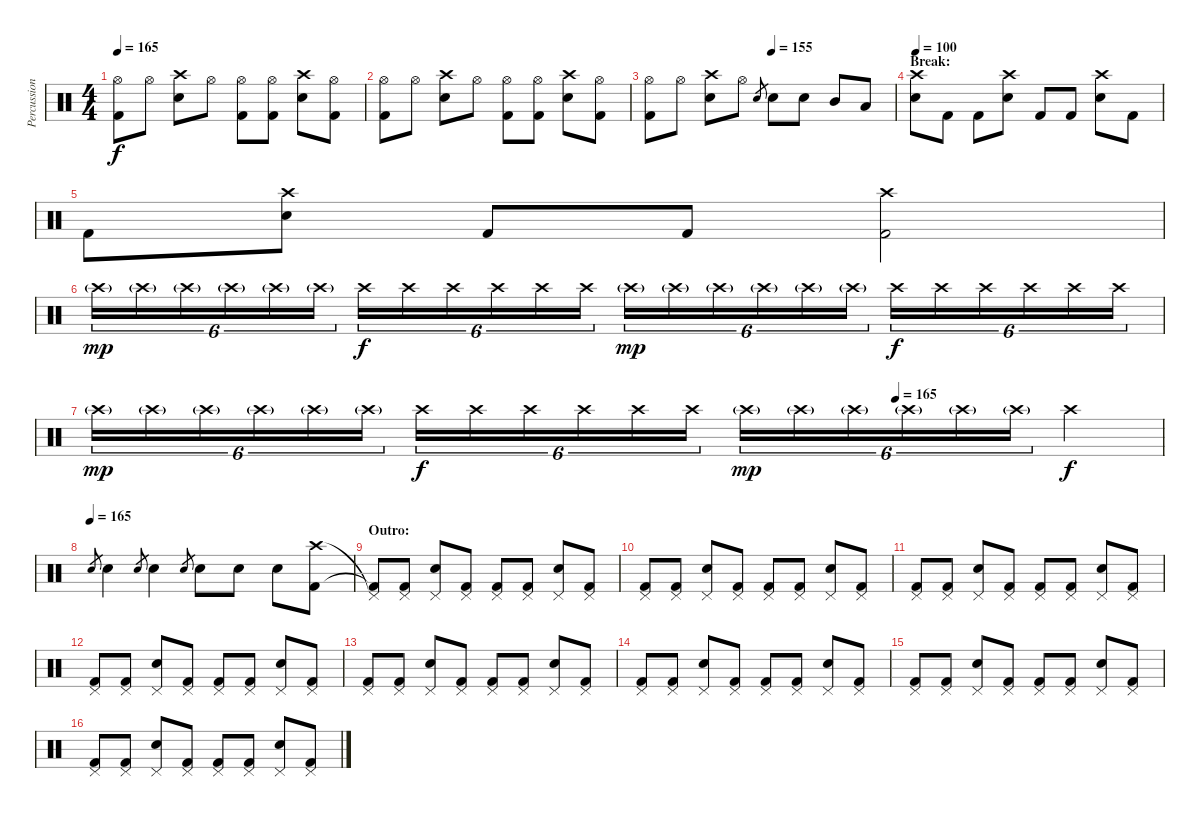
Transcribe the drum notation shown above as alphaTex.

\track ("Percussion" "Percussion") {instrument percussion}
\staff {score}
\articulation defaults
\ts (4 4)
\tempo 165
\clef neutral
\ks c
("Hi-Hat (open)" "Kick (hit) 2").8{dy f} "Hi-Hat (open)".8 ("Crash high (hit)" "Snare (hit) 2").8 "Hi-Hat (open)".8 ("Hi-Hat (open)" "Kick (hit) 2").8 ("Hi-Hat (open)" "Kick (hit) 2").8 ("Crash high (hit)" "Snare (hit) 2").8 ("Hi-Hat (open)" "Kick (hit) 2").8 |
("Hi-Hat (open)" "Kick (hit) 2").8 "Hi-Hat (open)".8 ("Crash high (hit)" "Snare (hit) 2").8 "Hi-Hat (open)".8 ("Hi-Hat (open)" "Kick (hit) 2").8 ("Hi-Hat (open)" "Kick (hit) 2").8 ("Crash high (hit)" "Snare (hit) 2").8 ("Hi-Hat (open)" "Kick (hit) 2").8 |
\tempo (155 0.5)
("Hi-Hat (open)" "Kick (hit) 2").8 "Hi-Hat (open)".8 ("Crash high (hit)" "Snare (hit) 2").8 "Hi-Hat (open)".8 "Snare (hit) 2".8{gr} "Snare (hit) 2".8 "Snare (hit) 2".8 "Mid Tom (hit)".8 "Low Tom (hit)".8 |
\section ("" "Break:")
\tempo 100
("Crash high (hit)" "Snare (hit) 2").8 "Kick (hit) 2".8 "Kick (hit) 2".8 ("Crash high (hit)" "Snare (hit) 2").8 "Kick (hit) 2".8 "Kick (hit) 2".8 ("Crash high (hit)" "Snare (hit) 2").8 "Kick (hit) 2".8 |
"Kick (hit) 2".8 ("Crash high (hit)" "Snare (hit) 2").8 "Kick (hit) 2".8 "Kick (hit) 2".8 ("Crash high (hit)" "Kick (hit) 2").2 |
"Crash high (hit)"{g}.16{tu (6 4) dy mp} "Crash high (hit)"{g}.16{tu (6 4)} "Crash high (hit)"{g}.16{tu (6 4)} "Crash high (hit)"{g}.16{tu (6 4)} "Crash high (hit)"{g}.16{tu (6 4)} "Crash high (hit)"{g}.16{tu (6 4)} "Crash high (hit)".16{tu (6 4) dy f} "Crash high (hit)".16{tu (6 4)} "Crash high (hit)".16{tu (6 4)} "Crash high (hit)".16{tu (6 4)} "Crash high (hit)".16{tu (6 4)} "Crash high (hit)".16{tu (6 4)} "Crash high (hit)"{g}.16{tu (6 4) dy mp} "Crash high (hit)"{g}.16{tu (6 4)} "Crash high (hit)"{g}.16{tu (6 4)} "Crash high (hit)"{g}.16{tu (6 4)} "Crash high (hit)"{g}.16{tu (6 4)} "Crash high (hit)"{g}.16{tu (6 4)} "Crash high (hit)".16{tu (6 4) dy f} "Crash high (hit)".16{tu (6 4)} "Crash high (hit)".16{tu (6 4)} "Crash high (hit)".16{tu (6 4)} "Crash high (hit)".16{tu (6 4)} "Crash high (hit)".16{tu (6 4)} |
\tempo (165 0.75)
"Crash high (hit)"{g}.16{tu (6 4) dy mp} "Crash high (hit)"{g}.16{tu (6 4)} "Crash high (hit)"{g}.16{tu (6 4)} "Crash high (hit)"{g}.16{tu (6 4)} "Crash high (hit)"{g}.16{tu (6 4)} "Crash high (hit)"{g}.16{tu (6 4)} "Crash high (hit)".16{tu (6 4) dy f} "Crash high (hit)".16{tu (6 4)} "Crash high (hit)".16{tu (6 4)} "Crash high (hit)".16{tu (6 4)} "Crash high (hit)".16{tu (6 4)} "Crash high (hit)".16{tu (6 4)} "Crash high (hit)"{g}.16{tu (6 4) dy mp} "Crash high (hit)"{g}.16{tu (6 4)} "Crash high (hit)"{g}.16{tu (6 4)} "Crash high (hit)"{g}.16{tu (6 4)} "Crash high (hit)"{g}.16{tu (6 4)} "Crash high (hit)"{g}.16{tu (6 4)} "Crash high (hit)".4{dy f} |
\tempo (165)
"Snare (hit) 2".8{gr} "Snare (hit) 2".4 "Snare (hit) 2".8{gr} "Snare (hit) 2".4 "Snare (hit) 2".8{gr} "Snare (hit) 2".8 "Snare (hit) 2".8 "Snare (hit) 2".8 ("Crash high (hit)" "Kick (hit) 2").8 |
\section ("" "Outro:")
("Pedal Hi-Hat (hit)"{t} "Kick (hit) 2"{t}).8 ("Pedal Hi-Hat (hit)" "Kick (hit) 2").8 ("Pedal Hi-Hat (hit)" "Snare (hit) 2").8 ("Pedal Hi-Hat (hit)" "Kick (hit) 2").8 ("Pedal Hi-Hat (hit)" "Kick (hit) 2").8 ("Pedal Hi-Hat (hit)" "Kick (hit) 2").8 ("Pedal Hi-Hat (hit)" "Snare (hit) 2").8 ("Pedal Hi-Hat (hit)" "Kick (hit) 2").8 |
("Pedal Hi-Hat (hit)" "Kick (hit) 2").8 ("Pedal Hi-Hat (hit)" "Kick (hit) 2").8 ("Pedal Hi-Hat (hit)" "Snare (hit) 2").8 ("Pedal Hi-Hat (hit)" "Kick (hit) 2").8 ("Pedal Hi-Hat (hit)" "Kick (hit) 2").8 ("Pedal Hi-Hat (hit)" "Kick (hit) 2").8 ("Pedal Hi-Hat (hit)" "Snare (hit) 2").8 ("Pedal Hi-Hat (hit)" "Kick (hit) 2").8 |
("Pedal Hi-Hat (hit)" "Kick (hit) 2").8 ("Pedal Hi-Hat (hit)" "Kick (hit) 2").8 ("Pedal Hi-Hat (hit)" "Snare (hit) 2").8 ("Pedal Hi-Hat (hit)" "Kick (hit) 2").8 ("Pedal Hi-Hat (hit)" "Kick (hit) 2").8 ("Pedal Hi-Hat (hit)" "Kick (hit) 2").8 ("Pedal Hi-Hat (hit)" "Snare (hit) 2").8 ("Pedal Hi-Hat (hit)" "Kick (hit) 2").8 |
("Pedal Hi-Hat (hit)" "Kick (hit) 2").8 ("Pedal Hi-Hat (hit)" "Kick (hit) 2").8 ("Pedal Hi-Hat (hit)" "Snare (hit) 2").8 ("Pedal Hi-Hat (hit)" "Kick (hit) 2").8 ("Pedal Hi-Hat (hit)" "Kick (hit) 2").8 ("Pedal Hi-Hat (hit)" "Kick (hit) 2").8 ("Pedal Hi-Hat (hit)" "Snare (hit) 2").8 ("Pedal Hi-Hat (hit)" "Kick (hit) 2").8 |
("Pedal Hi-Hat (hit)" "Kick (hit) 2").8 ("Pedal Hi-Hat (hit)" "Kick (hit) 2").8 ("Pedal Hi-Hat (hit)" "Snare (hit) 2").8 ("Pedal Hi-Hat (hit)" "Kick (hit) 2").8 ("Pedal Hi-Hat (hit)" "Kick (hit) 2").8 ("Pedal Hi-Hat (hit)" "Kick (hit) 2").8 ("Pedal Hi-Hat (hit)" "Snare (hit) 2").8 ("Pedal Hi-Hat (hit)" "Kick (hit) 2").8 |
("Pedal Hi-Hat (hit)" "Kick (hit) 2").8 ("Pedal Hi-Hat (hit)" "Kick (hit) 2").8 ("Pedal Hi-Hat (hit)" "Snare (hit) 2").8 ("Pedal Hi-Hat (hit)" "Kick (hit) 2").8 ("Pedal Hi-Hat (hit)" "Kick (hit) 2").8 ("Pedal Hi-Hat (hit)" "Kick (hit) 2").8 ("Pedal Hi-Hat (hit)" "Snare (hit) 2").8 ("Pedal Hi-Hat (hit)" "Kick (hit) 2").8 |
("Pedal Hi-Hat (hit)" "Kick (hit) 2").8 ("Pedal Hi-Hat (hit)" "Kick (hit) 2").8 ("Pedal Hi-Hat (hit)" "Snare (hit) 2").8 ("Pedal Hi-Hat (hit)" "Kick (hit) 2").8 ("Pedal Hi-Hat (hit)" "Kick (hit) 2").8 ("Pedal Hi-Hat (hit)" "Kick (hit) 2").8 ("Pedal Hi-Hat (hit)" "Snare (hit) 2").8 ("Pedal Hi-Hat (hit)" "Kick (hit) 2").8 |
("Pedal Hi-Hat (hit)" "Kick (hit) 2").8 ("Pedal Hi-Hat (hit)" "Kick (hit) 2").8 ("Pedal Hi-Hat (hit)" "Snare (hit) 2").8 ("Pedal Hi-Hat (hit)" "Kick (hit) 2").8 ("Pedal Hi-Hat (hit)" "Kick (hit) 2").8 ("Pedal Hi-Hat (hit)" "Kick (hit) 2").8 ("Pedal Hi-Hat (hit)" "Snare (hit) 2").8 ("Pedal Hi-Hat (hit)" "Kick (hit) 2").8
